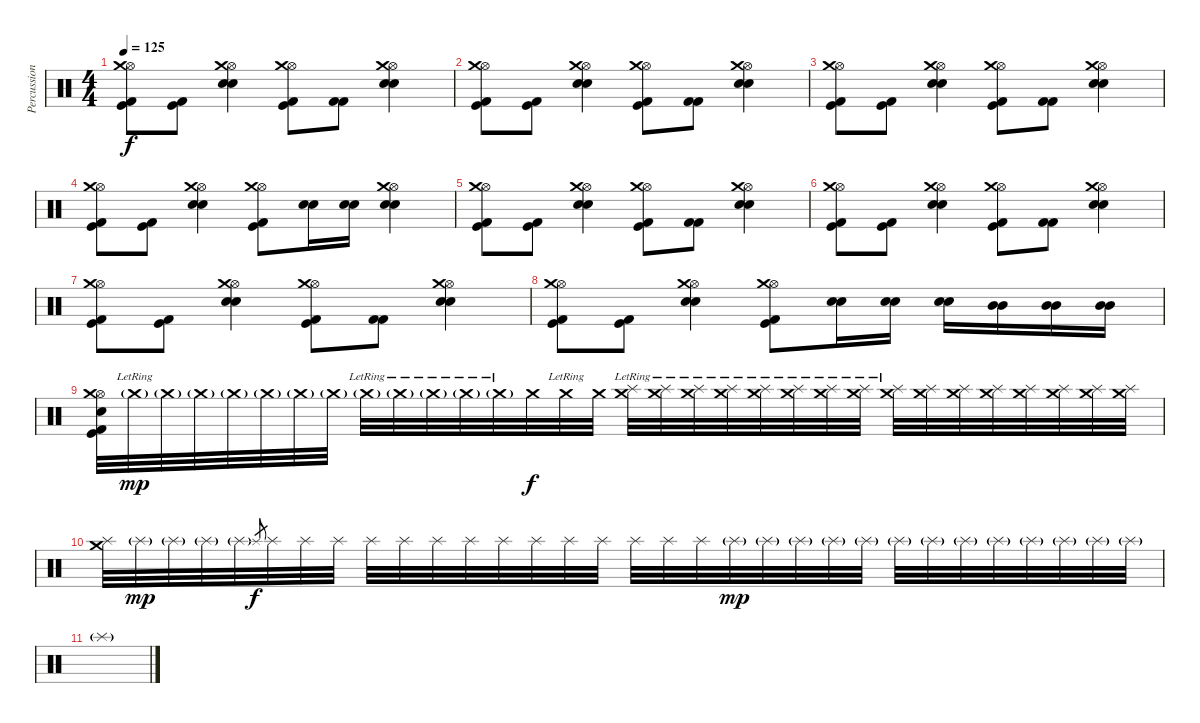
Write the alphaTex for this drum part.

\track ("Percussions" "Percussion") {instrument percussion}
\staff {score}
\articulation defaults
\ts (4 4)
\tempo 125
\clef neutral
\ks c
("Kick (hit)" "Kick (hit) 2" "Hi-Hat (open)" "Crash medium (hit)").8{dy f} ("Kick (hit)" "Kick (hit) 2").8 ("Snare (hit) 2" "Snare (hit) 2" "Hi-Hat (open)" "Crash medium (hit)").4 ("Kick (hit)" "Kick (hit) 2" "Hi-Hat (open)" "Crash medium (hit)").8 ("Kick (hit) 2" "Kick (hit) 2").8 ("Snare (hit) 2" "Snare (hit) 2" "Hi-Hat (open)" "Crash medium (hit)").4 |
("Kick (hit)" "Kick (hit) 2" "Hi-Hat (open)" "Crash medium (hit)").8 ("Kick (hit)" "Kick (hit) 2").8 ("Snare (hit) 2" "Snare (hit) 2" "Hi-Hat (open)" "Crash medium (hit)").4 ("Kick (hit)" "Kick (hit) 2" "Hi-Hat (open)" "Crash medium (hit)").8 ("Kick (hit) 2" "Kick (hit) 2").8 ("Snare (hit) 2" "Snare (hit) 2" "Hi-Hat (open)" "Crash medium (hit)").4 |
("Kick (hit)" "Kick (hit) 2" "Hi-Hat (open)" "Crash medium (hit)").8 ("Kick (hit)" "Kick (hit) 2").8 ("Snare (hit) 2" "Snare (hit) 2" "Hi-Hat (open)" "Crash medium (hit)").4 ("Kick (hit)" "Kick (hit) 2" "Hi-Hat (open)" "Crash medium (hit)").8 ("Kick (hit) 2" "Kick (hit) 2").8 ("Snare (hit) 2" "Snare (hit) 2" "Hi-Hat (open)" "Crash medium (hit)").4 |
("Kick (hit)" "Kick (hit) 2" "Hi-Hat (open)" "Crash medium (hit)").8 ("Kick (hit)" "Kick (hit) 2").8 ("Snare (hit) 2" "Snare (hit) 2" "Hi-Hat (open)" "Crash medium (hit)").4 ("Kick (hit)" "Kick (hit) 2" "Hi-Hat (open)" "Crash medium (hit)").8 ("Snare (hit) 2" "Snare (hit) 2").16 ("Snare (hit) 2" "Snare (hit) 2").16 ("Snare (hit) 2" "Snare (hit) 2" "Hi-Hat (open)" "Crash medium (hit)").4 |
("Kick (hit)" "Kick (hit) 2" "Hi-Hat (open)" "Crash medium (hit)").8 ("Kick (hit)" "Kick (hit) 2").8 ("Snare (hit) 2" "Snare (hit) 2" "Hi-Hat (open)" "Crash medium (hit)").4 ("Kick (hit)" "Kick (hit) 2" "Hi-Hat (open)" "Crash medium (hit)").8 ("Kick (hit) 2" "Kick (hit) 2").8 ("Snare (hit) 2" "Snare (hit) 2" "Hi-Hat (open)" "Crash medium (hit)").4 |
("Kick (hit)" "Kick (hit) 2" "Hi-Hat (open)" "Crash medium (hit)").8 ("Kick (hit)" "Kick (hit) 2").8 ("Snare (hit) 2" "Snare (hit) 2" "Hi-Hat (open)" "Crash medium (hit)").4 ("Kick (hit)" "Kick (hit) 2" "Hi-Hat (open)" "Crash medium (hit)").8 ("Kick (hit) 2" "Kick (hit) 2").8 ("Snare (hit) 2" "Snare (hit) 2" "Hi-Hat (open)" "Crash medium (hit)").4 |
("Kick (hit)" "Kick (hit) 2" "Hi-Hat (open)" "Crash medium (hit)").8 ("Kick (hit)" "Kick (hit) 2").8 ("Snare (hit) 2" "Snare (hit) 2" "Hi-Hat (open)" "Crash medium (hit)").4 ("Kick (hit)" "Kick (hit) 2" "Hi-Hat (open)" "Crash medium (hit)").8 ("Kick (hit) 2" "Kick (hit) 2").8 ("Snare (hit) 2" "Snare (hit) 2" "Hi-Hat (open)" "Crash medium (hit)").4 |
("Kick (hit)" "Kick (hit) 2" "Hi-Hat (open)" "Crash medium (hit)").8 ("Kick (hit)" "Kick (hit) 2").8 ("Snare (hit) 2" "Snare (hit) 2" "Hi-Hat (open)" "Crash medium (hit)").4 ("Kick (hit)" "Kick (hit) 2" "Hi-Hat (open)" "Crash medium (hit)").8 ("Snare (hit) 2" "Snare (hit) 2").16 ("Snare (hit) 2" "Snare (hit) 2").16 ("Snare (hit) 2" "Snare (hit) 2").16 ("Mid Tom (hit)" "Mid Tom (hit)").16 ("Mid Tom (hit)" "Mid Tom (hit)").16 ("Mid Tom (hit)" "Mid Tom (hit)").16 |
("Snare (hit) 2" "Kick (hit)" "Kick (hit) 2" "Hi-Hat (open)" "Crash medium (hit)").32 "Crash medium (hit)"{g lr}.32{dy mp} "Crash medium (hit)"{g}.32 "Crash medium (hit)"{g}.32 "Crash medium (hit)"{g}.32 "Crash medium (hit)"{g}.32 "Crash medium (hit)"{g}.32 "Crash medium (hit)"{g}.32 "Crash medium (hit)"{g lr}.32 "Crash medium (hit)"{g lr}.32 "Crash medium (hit)"{g lr}.32 "Crash medium (hit)"{g lr}.32 "Crash medium (hit)"{g lr}.32 "Crash medium (hit)".32{dy f} "Crash medium (hit)"{lr}.32 "Crash medium (hit)".32 ("Splash (hit)" "Crash medium (hit)"{lr}).32 ("Splash (hit)" "Crash medium (hit)"{lr}).32 ("Splash (hit)" "Crash medium (hit)"{lr}).32 ("Splash (hit)" "Crash medium (hit)"{lr}).32 ("Splash (hit)" "Crash medium (hit)"{lr}).32 ("Splash (hit)" "Crash medium (hit)"{lr}).32 ("Splash (hit)" "Crash medium (hit)"{lr}).32 ("Splash (hit)" "Crash medium (hit)"{lr}).32 ("Splash (hit)" "Crash medium (hit)"{lr}).32 ("Splash (hit)" "Crash medium (hit)").32 ("Splash (hit)" "Crash medium (hit)").32 ("Splash (hit)" "Crash medium (hit)").32 ("Splash (hit)" "Crash medium (hit)").32 ("Splash (hit)" "Crash medium (hit)").32 ("Splash (hit)" "Crash medium (hit)").32 ("Splash (hit)" "Crash medium (hit)").32 |
("Splash (hit)" "Crash medium (hit)").32 "Splash (hit)"{g}.32{dy mp} "Splash (hit)"{g}.32 "Splash (hit)"{g}.32 "Splash (hit)"{g}.32 "Splash (hit)".8{gr dy f} "Splash (hit)".32 "Splash (hit)".32 "Splash (hit)".32 "Splash (hit)".32 "Splash (hit)".32 "Splash (hit)".32 "Splash (hit)".32 "Splash (hit)".32 "Splash (hit)".32 "Splash (hit)".32 "Splash (hit)".32 "Splash (hit)".32 "Splash (hit)".32 "Splash (hit)".32 "Splash (hit)"{g}.32{dy mp} "Splash (hit)"{g}.32 "Splash (hit)"{g}.32 "Splash (hit)"{g}.32 "Splash (hit)"{g}.32 "Splash (hit)"{g}.32 "Splash (hit)"{g}.32 "Splash (hit)"{g}.32 "Splash (hit)"{g}.32 "Splash (hit)"{g}.32 "Splash (hit)"{g}.32 "Splash (hit)"{g}.32 "Splash (hit)"{g}.32 |
"Splash (hit)"{g}.1
